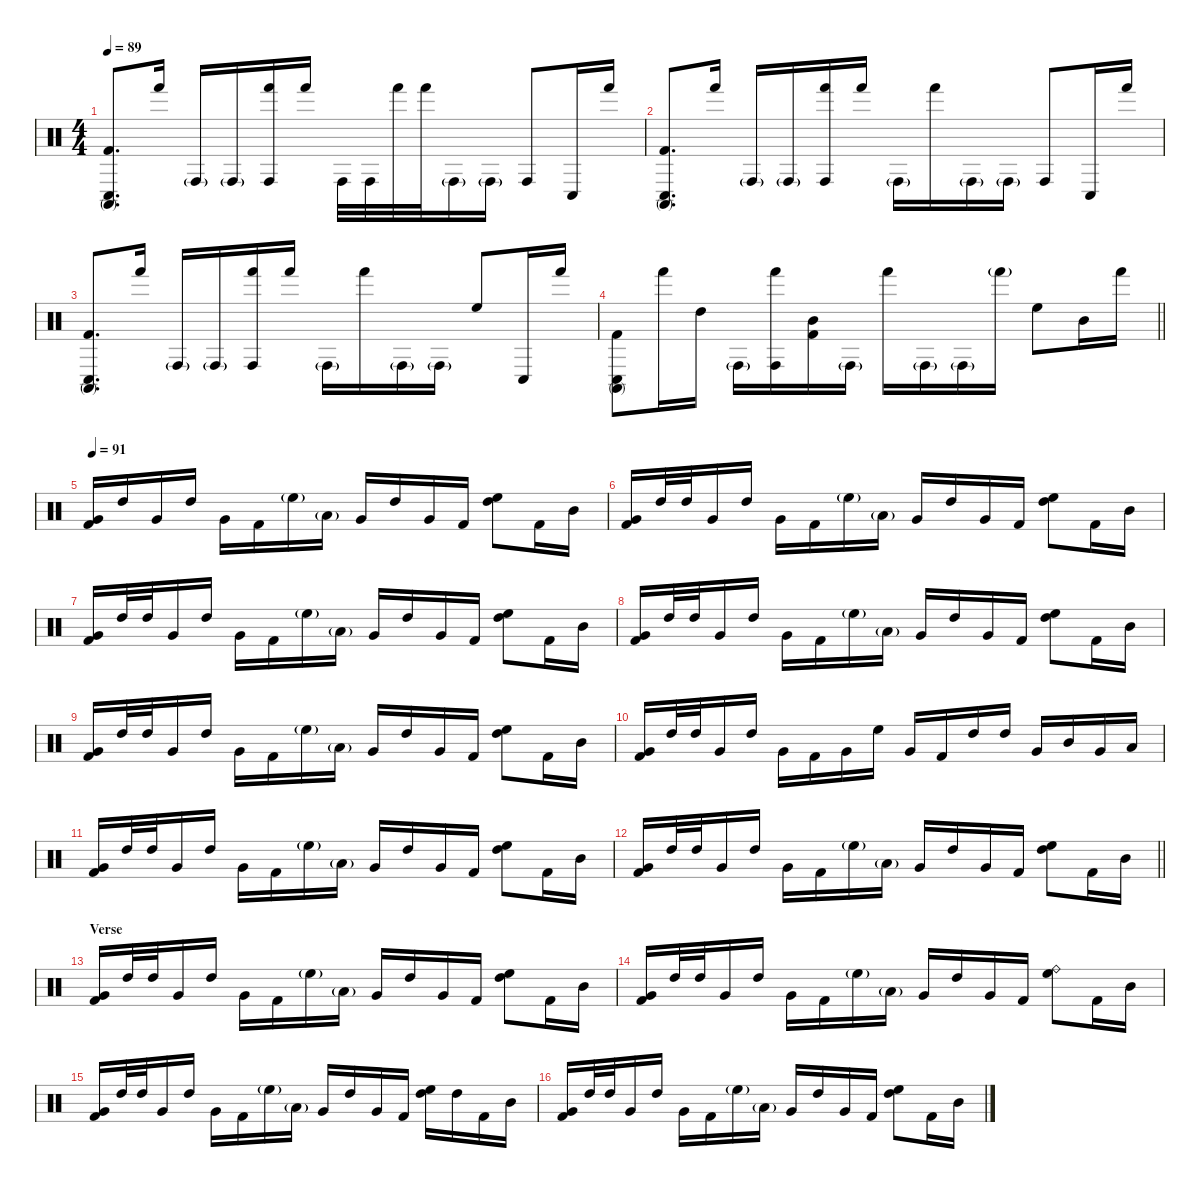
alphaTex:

\defaultSystemsLayout 4
\hideDynamics
\bracketExtendMode nobrackets
\singleTrackTrackNamePolicy hidden
\multiTrackTrackNamePolicy hidden
\otherSystemsTrackNameOrientation horizontal
\track ("Drums" "drm.") {instrument percussion}
\staff {score}
\articulation defaults
\ts (4 4)
\tempo 89
\clef neutral
\ks c
("Conga high (mute)" "Conga low (hit)" "Kick (hit) 2").8{d dy mp beam Up} "Hand (hit)".16{beam Up} "Conga high (hit)"{g}.16{beam Up} "Conga high (hit)"{g}.16{beam Up} ("Hand (hit)" "Conga high (hit)").16{beam Up} "Hand (hit)".16{beam Up} "Conga high (hit)".32{beam Down} "Conga high (hit)".32{beam Down} "Hand (hit)".32{beam Down} "Hand (hit)".32{beam Down} "Conga high (hit)"{g}.16{beam Down} "Conga high (hit)"{g}.16{beam Down} "Conga high (hit)".8{beam Up} "Conga low (hit)".16{beam Up} "Hand (hit)".16{beam Up} |
("Conga high (mute)" "Conga low (hit)" "Kick (hit) 2").8{d beam Up} "Hand (hit)".16{beam Up} "Conga high (hit)"{g}.16{beam Up} "Conga high (hit)"{g}.16{beam Up} ("Hand (hit)" "Conga high (hit)").16{beam Up} "Hand (hit)".16{beam Up} "Conga high (hit)"{g}.16{beam Down} "Hand (hit)".16{beam Down} "Conga high (hit)"{g}.16{beam Down} "Conga high (hit)"{g}.16{beam Down} "Conga high (hit)".8{beam Up} "Conga low (hit)".16{beam Up} "Hand (hit)".16{beam Up} |
("Conga high (mute)" "Conga low (hit)" "Kick (hit) 2").8{d beam Up} "Hand (hit)".16{beam Up} "Conga high (hit)"{g}.16{beam Up} "Conga high (hit)"{g}.16{beam Up} ("Hand (hit)" "Conga high (hit)").16{beam Up} "Hand (hit)".16{beam Up} "Conga high (hit)"{g}.16{beam Down} "Hand (hit)".16{beam Down} "Conga high (hit)"{g}.16{beam Down} "Conga high (hit)"{g}.16{beam Down} "High Floor Tom (hit)".8{dy f beam Up} "Conga low (hit)".16{dy mp beam Up} "Hand (hit)".16{beam Up} |
\barLineRight lightlight
("Conga high (mute)" "Conga low (hit)" "Kick (hit) 2").8{beam Down} "Hand (hit)".16{beam Down} "High Tom (hit)".16{dy f beam Down} "Conga high (hit)"{g}.16{dy mp beam Down} ("Hand (hit)" "Conga high (hit)").16{beam Down} ("Mid Tom (hit)" "Kick (hit) 2").16{dy f beam Down} "Conga high (hit)"{g}.16{dy mp beam Down} "Hand (hit)".16{beam Down} "Conga high (hit)"{g}.16{beam Down} "Conga high (hit)"{g}.16{beam Down} "Hand (hit)"{g}.16{beam Down} "High Floor Tom (hit)".8{dy f beam Down} "Mid Tom (hit)".16{beam Down} "Hand (hit)".16{dy mp beam Down} |
\section ("" "")
\tempo 91
("Very Low Tom (hit)" "Kick (hit) 2").16{dy f beam Up} "High Tom (hit)".16{beam Up} "Very Low Tom (hit)".16{beam Up} "High Tom (hit)".16{beam Up} "Very Low Tom (hit)".16{beam Down} "Kick (hit) 2".16{beam Down} "High Floor Tom (hit)"{g}.16{dy ff beam Down} "Low Floor Tom (hit)"{g}.16{beam Down} "Very Low Tom (hit)".16{dy f beam Up} "High Tom (hit)".16{beam Up} "Very Low Tom (hit)".16{beam Up} "Kick (hit) 2".16{beam Up} ("High Floor Tom (hit)" "High Tom (hit)").8{beam Down} "Kick (hit) 2".16{beam Down} "Mid Tom (hit)".16{beam Down} |
("Very Low Tom (hit)" "Kick (hit) 2").16{beam Up} "High Tom (hit)".32{beam Up} "High Tom (hit)".32{beam Up} "Very Low Tom (hit)".16{beam Up} "High Tom (hit)".16{beam Up} "Very Low Tom (hit)".16{beam Down} "Kick (hit) 2".16{beam Down} "High Floor Tom (hit)"{g}.16{dy ff beam Down} "Low Floor Tom (hit)"{g}.16{beam Down} "Very Low Tom (hit)".16{dy f beam Up} "High Tom (hit)".16{beam Up} "Very Low Tom (hit)".16{beam Up} "Kick (hit) 2".16{beam Up} ("High Floor Tom (hit)" "High Tom (hit)").8{beam Down} "Kick (hit) 2".16{beam Down} "Mid Tom (hit)".16{beam Down} |
("Very Low Tom (hit)" "Kick (hit) 2").16{beam Up} "High Tom (hit)".32{beam Up} "High Tom (hit)".32{beam Up} "Very Low Tom (hit)".16{beam Up} "High Tom (hit)".16{beam Up} "Very Low Tom (hit)".16{beam Down} "Kick (hit) 2".16{beam Down} "High Floor Tom (hit)"{g}.16{dy ff beam Down} "Low Floor Tom (hit)"{g}.16{beam Down} "Very Low Tom (hit)".16{dy f beam Up} "High Tom (hit)".16{beam Up} "Very Low Tom (hit)".16{beam Up} "Kick (hit) 2".16{beam Up} ("High Floor Tom (hit)" "High Tom (hit)").8{beam Down} "Kick (hit) 2".16{beam Down} "Mid Tom (hit)".16{beam Down} |
("Very Low Tom (hit)" "Kick (hit) 2").16{beam Up} "High Tom (hit)".32{beam Up} "High Tom (hit)".32{beam Up} "Very Low Tom (hit)".16{beam Up} "High Tom (hit)".16{beam Up} "Very Low Tom (hit)".16{beam Down} "Kick (hit) 2".16{beam Down} "High Floor Tom (hit)"{g}.16{dy ff beam Down} "Low Floor Tom (hit)"{g}.16{beam Down} "Very Low Tom (hit)".16{dy f beam Up} "High Tom (hit)".16{beam Up} "Very Low Tom (hit)".16{beam Up} "Kick (hit) 2".16{beam Up} ("High Floor Tom (hit)" "High Tom (hit)").8{beam Down} "Kick (hit) 2".16{beam Down} "Mid Tom (hit)".16{beam Down} |
("Very Low Tom (hit)" "Kick (hit) 2").16{beam Up} "High Tom (hit)".32{beam Up} "High Tom (hit)".32{beam Up} "Very Low Tom (hit)".16{beam Up} "High Tom (hit)".16{beam Up} "Very Low Tom (hit)".16{beam Down} "Kick (hit) 2".16{beam Down} "High Floor Tom (hit)"{g}.16{dy ff beam Down} "Low Floor Tom (hit)"{g}.16{beam Down} "Very Low Tom (hit)".16{dy f beam Up} "High Tom (hit)".16{beam Up} "Very Low Tom (hit)".16{beam Up} "Kick (hit) 2".16{beam Up} ("High Floor Tom (hit)" "High Tom (hit)").8{beam Down} "Kick (hit) 2".16{beam Down} "Mid Tom (hit)".16{beam Down} |
("Very Low Tom (hit)" "Kick (hit) 2").16{beam Up} "High Tom (hit)".32{beam Up} "High Tom (hit)".32{beam Up} "Very Low Tom (hit)".16{beam Up} "High Tom (hit)".16{beam Up} "Very Low Tom (hit)".16{beam Down} "Kick (hit) 2".16{beam Down} "Very Low Tom (hit)".16{beam Down} "High Floor Tom (hit)".16{beam Down} "Very Low Tom (hit)".16{beam Up} "Kick (hit) 2".16{beam Up} "High Tom (hit)".16{beam Up} "High Tom (hit)".16{beam Up} "Very Low Tom (hit)".16{beam Up} "Mid Tom (hit)".16{beam Up} "Very Low Tom (hit)".16{beam Up} "Low Floor Tom (hit)".16{beam Up} |
("Very Low Tom (hit)" "Kick (hit) 2").16{beam Up} "High Tom (hit)".32{beam Up} "High Tom (hit)".32{beam Up} "Very Low Tom (hit)".16{beam Up} "High Tom (hit)".16{beam Up} "Very Low Tom (hit)".16{beam Down} "Kick (hit) 2".16{beam Down} "High Floor Tom (hit)"{g}.16{dy ff beam Down} "Low Floor Tom (hit)"{g}.16{beam Down} "Very Low Tom (hit)".16{dy f beam Up} "High Tom (hit)".16{beam Up} "Very Low Tom (hit)".16{beam Up} "Kick (hit) 2".16{beam Up} ("High Floor Tom (hit)" "High Tom (hit)").8{beam Down} "Kick (hit) 2".16{beam Down} "Mid Tom (hit)".16{beam Down} |
\barLineRight lightlight
("Very Low Tom (hit)" "Kick (hit) 2").16{beam Up} "High Tom (hit)".32{beam Up} "High Tom (hit)".32{beam Up} "Very Low Tom (hit)".16{beam Up} "High Tom (hit)".16{beam Up} "Very Low Tom (hit)".16{beam Down} "Kick (hit) 2".16{beam Down} "High Floor Tom (hit)"{g}.16{dy ff beam Down} "Low Floor Tom (hit)"{g}.16{beam Down} "Very Low Tom (hit)".16{dy f beam Up} "High Tom (hit)".16{beam Up} "Very Low Tom (hit)".16{beam Up} "Kick (hit) 2".16{beam Up} ("High Floor Tom (hit)" "High Tom (hit)").8{beam Down} "Kick (hit) 2".16{beam Down} "Mid Tom (hit)".16{beam Down} |
\section ("" "Verse")
("Very Low Tom (hit)" "Kick (hit) 2").16{beam Up} "High Tom (hit)".32{beam Up} "High Tom (hit)".32{beam Up} "Very Low Tom (hit)".16{beam Up} "High Tom (hit)".16{beam Up} "Very Low Tom (hit)".16{beam Down} "Kick (hit) 2".16{beam Down} "High Floor Tom (hit)"{g}.16{dy ff beam Down} "Low Floor Tom (hit)"{g}.16{beam Down} "Very Low Tom (hit)".16{dy f beam Up} "High Tom (hit)".16{beam Up} "Very Low Tom (hit)".16{beam Up} "Kick (hit) 2".16{beam Up} ("High Floor Tom (hit)" "High Tom (hit)").8{beam Down} "Kick (hit) 2".16{beam Down} "Mid Tom (hit)".16{beam Down} |
("Very Low Tom (hit)" "Kick (hit) 2").16{beam Up} "High Tom (hit)".32{beam Up} "High Tom (hit)".32{beam Up} "Very Low Tom (hit)".16{beam Up} "High Tom (hit)".16{beam Up} "Very Low Tom (hit)".16{beam Down} "Kick (hit) 2".16{beam Down} "High Floor Tom (hit)"{g}.16{dy ff beam Down} "Low Floor Tom (hit)"{g}.16{beam Down} "Very Low Tom (hit)".16{dy f beam Up} "High Tom (hit)".16{beam Up} "Very Low Tom (hit)".16{beam Up} "Kick (hit) 2".16{beam Up} ("Ride (bell)" "High Floor Tom (hit)").8{dy mf beam Down} "Kick (hit) 2".16{dy f beam Down} "Mid Tom (hit)".16{beam Down} |
("Very Low Tom (hit)" "Kick (hit) 2").16{beam Up} "High Tom (hit)".32{beam Up} "High Tom (hit)".32{beam Up} "Very Low Tom (hit)".16{beam Up} "High Tom (hit)".16{beam Up} "Very Low Tom (hit)".16{beam Down} "Kick (hit) 2".16{beam Down} "High Floor Tom (hit)"{g}.16{dy ff beam Down} "Low Floor Tom (hit)"{g}.16{beam Down} "Very Low Tom (hit)".16{dy f beam Up} "High Tom (hit)".16{beam Up} "Very Low Tom (hit)".16{beam Up} "Kick (hit) 2".16{beam Up} ("High Floor Tom (hit)" "High Tom (hit)").16{beam Down} "High Tom (hit)".16{beam Down} "Kick (hit) 2".16{beam Down} "Mid Tom (hit)".16{beam Down} |
("Very Low Tom (hit)" "Kick (hit) 2").16{beam Up} "High Tom (hit)".32{beam Up} "High Tom (hit)".32{beam Up} "Very Low Tom (hit)".16{beam Up} "High Tom (hit)".16{beam Up} "Very Low Tom (hit)".16{beam Down} "Kick (hit) 2".16{beam Down} "High Floor Tom (hit)"{g}.16{dy ff beam Down} "Low Floor Tom (hit)"{g}.16{beam Down} "Very Low Tom (hit)".16{dy f beam Up} "High Tom (hit)".16{beam Up} "Very Low Tom (hit)".16{beam Up} "Kick (hit) 2".16{beam Up} ("High Floor Tom (hit)" "High Tom (hit)").8{beam Down} "Kick (hit) 2".16{beam Down} "Mid Tom (hit)".16{beam Down}
